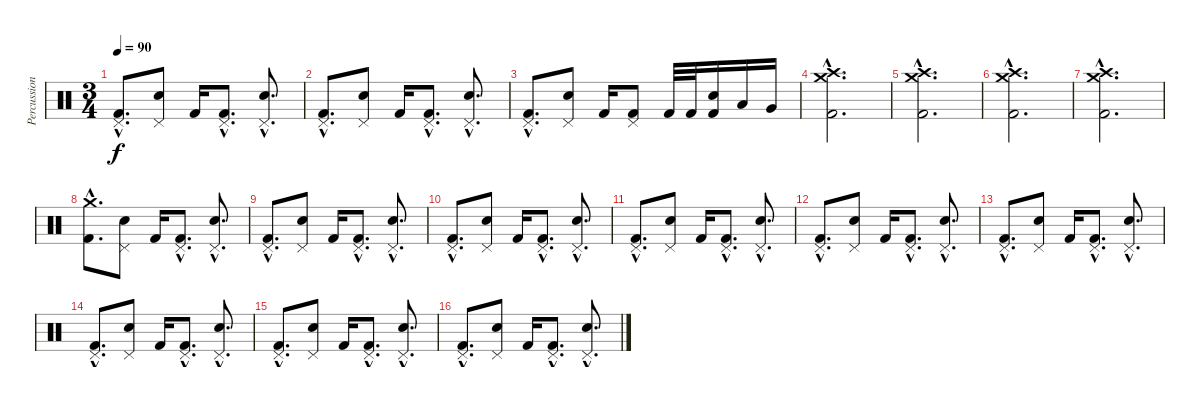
\track ("Percussion" "Percussion") {instrument percussion}
\staff {score}
\articulation defaults
\ts (3 4)
\tempo 90
\clef neutral
\ks c
("Kick (hit) 2"{hac} "Pedal Hi-Hat (hit)"{hac}).8{d dy f} ("Electric Snare (hit)" "Pedal Hi-Hat (hit)").8 "Kick (hit) 2".16 ("Kick (hit) 2"{hac} "Pedal Hi-Hat (hit)"{hac}).8{d} ("Electric Snare (hit)"{hac} "Pedal Hi-Hat (hit)"{hac}).8{d} |
("Kick (hit) 2"{hac} "Pedal Hi-Hat (hit)"{hac}).8{d} ("Electric Snare (hit)" "Pedal Hi-Hat (hit)").8 "Kick (hit) 2".16 ("Kick (hit) 2"{hac} "Pedal Hi-Hat (hit)"{hac}).8{d} ("Electric Snare (hit)"{hac} "Pedal Hi-Hat (hit)"{hac}).8{d} |
("Kick (hit) 2"{hac} "Pedal Hi-Hat (hit)"{hac}).8{d} ("Electric Snare (hit)" "Pedal Hi-Hat (hit)").8 "Kick (hit) 2".16 ("Kick (hit) 2" "Pedal Hi-Hat (hit)").8 "Kick (hit) 2".32 "Kick (hit) 2".32 ("Kick (hit) 2" "Electric Snare (hit)").16 "Low Tom (hit)".16 "Very Low Tom (hit)".16 |
("Kick (hit) 2"{hac} "Crash high (hit)"{hac} "Crash medium (hit)"{hac}).2{d} |
("Kick (hit) 2"{hac} "Crash high (hit)"{hac} "Crash medium (hit)"{hac}).2{d} |
("Kick (hit) 2"{hac} "Crash high (hit)"{hac} "Crash medium (hit)"{hac}).2{d} |
("Kick (hit) 2"{hac} "Crash high (hit)"{hac} "Crash medium (hit)"{hac}).2{d} |
("Kick (hit) 2"{hac} "Crash medium (hit)"{hac}).8{d} ("Electric Snare (hit)" "Pedal Hi-Hat (hit)").8 "Kick (hit) 2".16 ("Kick (hit) 2"{hac} "Pedal Hi-Hat (hit)"{hac}).8{d} ("Electric Snare (hit)"{hac} "Pedal Hi-Hat (hit)"{hac}).8{d} |
("Kick (hit) 2"{hac} "Pedal Hi-Hat (hit)"{hac}).8{d} ("Electric Snare (hit)" "Pedal Hi-Hat (hit)").8 "Kick (hit) 2".16 ("Kick (hit) 2"{hac} "Pedal Hi-Hat (hit)"{hac}).8{d} ("Electric Snare (hit)"{hac} "Pedal Hi-Hat (hit)"{hac}).8{d} |
("Kick (hit) 2"{hac} "Pedal Hi-Hat (hit)"{hac}).8{d} ("Electric Snare (hit)" "Pedal Hi-Hat (hit)").8 "Kick (hit) 2".16 ("Kick (hit) 2"{hac} "Pedal Hi-Hat (hit)"{hac}).8{d} ("Electric Snare (hit)"{hac} "Pedal Hi-Hat (hit)"{hac}).8{d} |
("Kick (hit) 2"{hac} "Pedal Hi-Hat (hit)"{hac}).8{d} ("Electric Snare (hit)" "Pedal Hi-Hat (hit)").8 "Kick (hit) 2".16 ("Kick (hit) 2"{hac} "Pedal Hi-Hat (hit)"{hac}).8{d} ("Electric Snare (hit)"{hac} "Pedal Hi-Hat (hit)"{hac}).8{d} |
("Kick (hit) 2"{hac} "Pedal Hi-Hat (hit)"{hac}).8{d} ("Electric Snare (hit)" "Pedal Hi-Hat (hit)").8 "Kick (hit) 2".16 ("Kick (hit) 2"{hac} "Pedal Hi-Hat (hit)"{hac}).8{d} ("Electric Snare (hit)"{hac} "Pedal Hi-Hat (hit)"{hac}).8{d} |
("Kick (hit) 2"{hac} "Pedal Hi-Hat (hit)"{hac}).8{d} ("Electric Snare (hit)" "Pedal Hi-Hat (hit)").8 "Kick (hit) 2".16 ("Kick (hit) 2"{hac} "Pedal Hi-Hat (hit)"{hac}).8{d} ("Electric Snare (hit)"{hac} "Pedal Hi-Hat (hit)"{hac}).8{d} |
("Kick (hit) 2"{hac} "Pedal Hi-Hat (hit)"{hac}).8{d} ("Electric Snare (hit)" "Pedal Hi-Hat (hit)").8 "Kick (hit) 2".16 ("Kick (hit) 2"{hac} "Pedal Hi-Hat (hit)"{hac}).8{d} ("Electric Snare (hit)"{hac} "Pedal Hi-Hat (hit)"{hac}).8{d} |
("Kick (hit) 2"{hac} "Pedal Hi-Hat (hit)"{hac}).8{d} ("Electric Snare (hit)" "Pedal Hi-Hat (hit)").8 "Kick (hit) 2".16 ("Kick (hit) 2"{hac} "Pedal Hi-Hat (hit)"{hac}).8{d} ("Electric Snare (hit)"{hac} "Pedal Hi-Hat (hit)"{hac}).8{d} |
("Kick (hit) 2"{hac} "Pedal Hi-Hat (hit)"{hac}).8{d} ("Electric Snare (hit)" "Pedal Hi-Hat (hit)").8 "Kick (hit) 2".16 ("Kick (hit) 2"{hac} "Pedal Hi-Hat (hit)"{hac}).8{d} ("Electric Snare (hit)"{hac} "Pedal Hi-Hat (hit)"{hac}).8{d}
